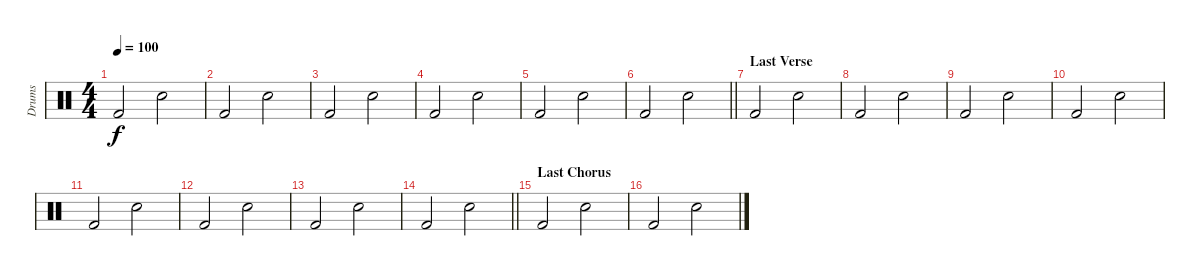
\track ("Drums" "Drums") {instrument percussion}
\staff {score}
\articulation defaults
\ts (4 4)
\tempo 100
\clef neutral
\ks c "Kick (hit) 2".2{dy f} "Snare (hit) 2".2
|
"Kick (hit) 2".2 "Snare (hit) 2".2 |
"Kick (hit) 2".2 "Snare (hit) 2".2 |
"Kick (hit) 2".2 "Snare (hit) 2".2 |
"Kick (hit) 2".2 "Snare (hit) 2".2 |
\barLineRight lightlight "Kick (hit) 2".2 "Snare (hit) 2".2
|
\section ("" "Last Verse")
"Kick (hit) 2".2 "Snare (hit) 2".2 |
"Kick (hit) 2".2 "Snare (hit) 2".2 |
"Kick (hit) 2".2 "Snare (hit) 2".2 |
"Kick (hit) 2".2 "Snare (hit) 2".2 |
"Kick (hit) 2".2 "Snare (hit) 2".2 |
"Kick (hit) 2".2 "Snare (hit) 2".2 |
"Kick (hit) 2".2 "Snare (hit) 2".2 |
\barLineRight lightlight "Kick (hit) 2".2 "Snare (hit) 2".2
|
\section ("" "Last Chorus")
"Kick (hit) 2".2 "Snare (hit) 2".2 |
"Kick (hit) 2".2 "Snare (hit) 2".2
